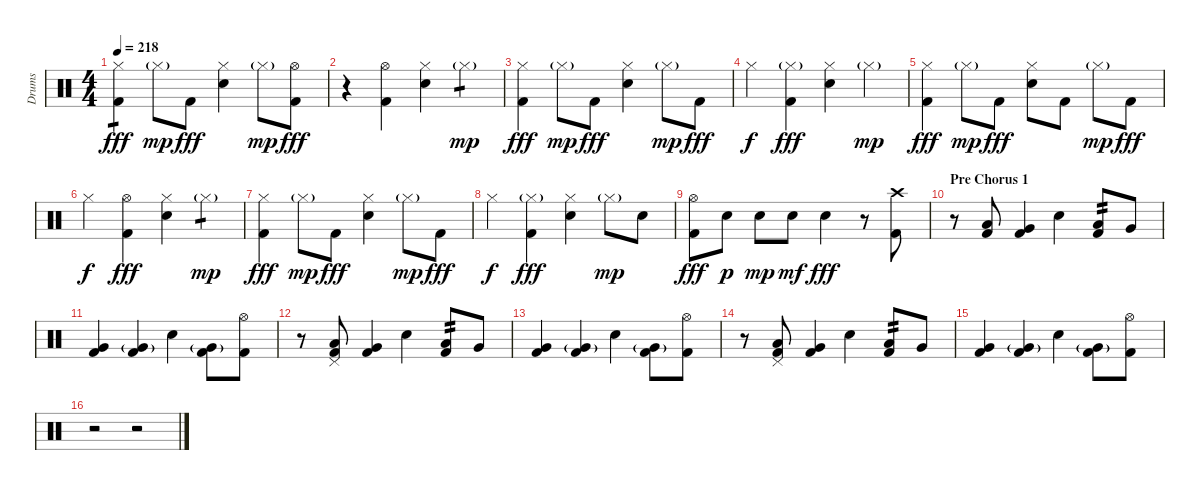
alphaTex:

\track ("Drums" "Drums") {instrument percussion}
\staff {score}
\articulation defaults
\ts (4 4)
\tempo 218
\clef neutral
\ks c
("Hi-Hat (closed)" "Kick (hit) 2").4{tp 1 dy fff} "Hi-Hat (closed)"{g}.8{dy mp} "Kick (hit) 2".8{dy fff} ("Hi-Hat (closed)" "Electric Snare (hit)").4 "Hi-Hat (closed)"{g}.8{dy mp} ("Hi-Hat (open)" "Kick (hit) 2").8{dy fff} |
r.4 ("Hi-Hat (open)" "Kick (hit) 2").4 ("Hi-Hat (closed)" "Electric Snare (hit)").4 "Hi-Hat (closed)"{g}.4{tp 1 dy mp} |
("Hi-Hat (closed)" "Kick (hit) 2").4{dy fff} "Hi-Hat (closed)"{g}.8{dy mp} "Kick (hit) 2".8{dy fff} ("Hi-Hat (closed)" "Electric Snare (hit)").4 "Hi-Hat (closed)"{g}.8{dy mp} "Kick (hit) 2".8{dy fff} |
"Hi-Hat (closed)".4{dy f} ("Hi-Hat (closed)"{g} "Kick (hit) 2").4{dy fff} ("Hi-Hat (closed)" "Electric Snare (hit)").4 "Hi-Hat (closed)"{g}.4{dy mp} |
("Hi-Hat (closed)" "Kick (hit) 2").4{dy fff} "Hi-Hat (closed)"{g}.8{dy mp} "Kick (hit) 2".8{dy fff} ("Hi-Hat (closed)" "Electric Snare (hit)").8 "Kick (hit) 2".8 "Hi-Hat (closed)"{g}.8{dy mp} "Kick (hit) 2".8{dy fff} |
"Hi-Hat (closed)".4{dy f} ("Hi-Hat (open)" "Kick (hit) 2").4{dy fff} ("Hi-Hat (closed)" "Electric Snare (hit)").4 "Hi-Hat (closed)"{g}.4{tp 1 dy mp} |
("Hi-Hat (closed)" "Kick (hit) 2").4{dy fff} "Hi-Hat (closed)"{g}.8{dy mp} "Kick (hit) 2".8{dy fff} ("Hi-Hat (closed)" "Electric Snare (hit)").4 "Hi-Hat (closed)"{g}.8{dy mp} "Kick (hit) 2".8{dy fff} |
"Hi-Hat (closed)".4{dy f} ("Hi-Hat (closed)"{g} "Kick (hit) 2").4{dy fff} ("Hi-Hat (closed)" "Electric Snare (hit)").4 "Hi-Hat (closed)"{g}.8{dy mp} "Electric Snare (hit)".8 |
("Hi-Hat (open)" "Kick (hit) 2").8{dy fff} "Electric Snare (hit)".8{dy p} "Electric Snare (hit)".8{dy mp} "Electric Snare (hit)".8{dy mf} "Electric Snare (hit)".4{dy fff} r.8 ("Crash high (hit)" "Kick (hit) 2").8 |
\section ("" "Pre Chorus 1")
r.8 ("Low Tom (hit)" "Kick (hit) 2").8 ("Very Low Tom (hit)" "Kick (hit) 2").4 "Electric Snare (hit)".4 ("Low Tom (hit)" "Kick (hit) 2").8{tp 2} "Very Low Tom (hit)".8 |
("Very Low Tom (hit)" "Kick (hit) 2").4 ("Very Low Tom (hit)"{g} "Kick (hit) 2").4 "Electric Snare (hit)".4 ("Very Low Tom (hit)"{g} "Kick (hit) 2").8 ("Hi-Hat (open)" "Kick (hit) 2").8 |
r.8 ("Low Tom (hit)" "Pedal Hi-Hat (hit)" "Kick (hit) 2").8 ("Very Low Tom (hit)" "Kick (hit) 2").4 "Electric Snare (hit)".4 ("Low Tom (hit)" "Kick (hit) 2").8{tp 2} "Very Low Tom (hit)".8 |
("Very Low Tom (hit)" "Kick (hit) 2").4 ("Very Low Tom (hit)"{g} "Kick (hit) 2").4 "Electric Snare (hit)".4 ("Very Low Tom (hit)"{g} "Kick (hit) 2").8 ("Hi-Hat (open)" "Kick (hit) 2").8 |
r.8 ("Low Tom (hit)" "Pedal Hi-Hat (hit)" "Kick (hit) 2").8 ("Very Low Tom (hit)" "Kick (hit) 2").4 "Electric Snare (hit)".4 ("Low Tom (hit)" "Kick (hit) 2").8{tp 2} "Very Low Tom (hit)".8 |
("Very Low Tom (hit)" "Kick (hit) 2").4 ("Very Low Tom (hit)"{g} "Kick (hit) 2").4 "Electric Snare (hit)".4 ("Very Low Tom (hit)"{g} "Kick (hit) 2").8 ("Hi-Hat (open)" "Kick (hit) 2").8 |
r.2 r.2
